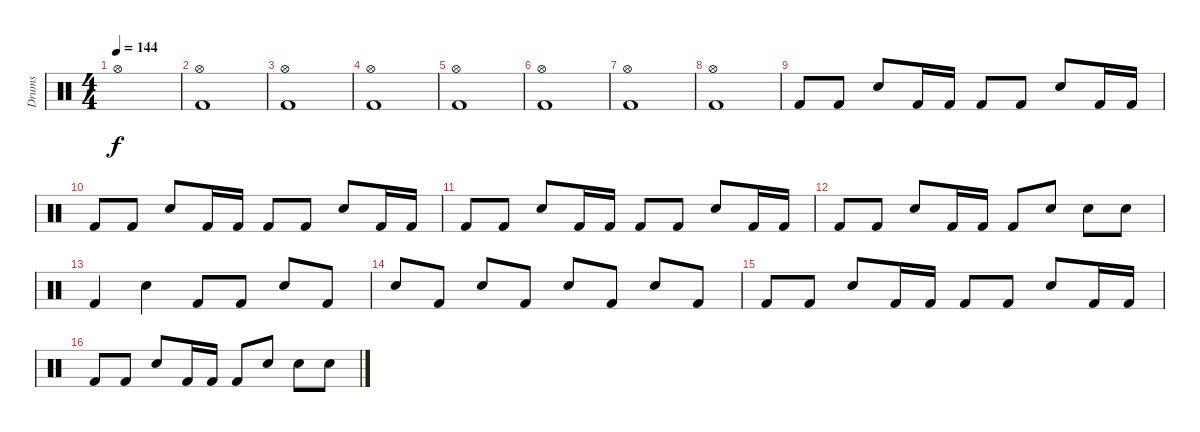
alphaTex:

\track ("Drums" "Drums") {instrument percussion}
\staff {score}
\articulation defaults
\ts (4 4)
\tempo 144
\clef neutral
\ks c "Hi-Hat (open)".1{dy f}
|
("Hi-Hat (open)" "Kick (hit) 2").1 |
("Hi-Hat (open)" "Kick (hit) 2").1 |
("Hi-Hat (open)" "Kick (hit) 2").1 |
("Hi-Hat (open)" "Kick (hit) 2").1 |
("Hi-Hat (open)" "Kick (hit) 2").1 |
("Hi-Hat (open)" "Kick (hit) 2").1 |
("Hi-Hat (open)" "Kick (hit) 2").1 |
"Kick (hit) 2".8 "Kick (hit) 2".8 "Electric Snare (hit)".8 "Kick (hit) 2".16 "Kick (hit) 2".16 "Kick (hit) 2".8 "Kick (hit) 2".8 "Electric Snare (hit)".8 "Kick (hit) 2".16 "Kick (hit) 2".16 |
"Kick (hit) 2".8 "Kick (hit) 2".8 "Electric Snare (hit)".8 "Kick (hit) 2".16 "Kick (hit) 2".16 "Kick (hit) 2".8 "Kick (hit) 2".8 "Electric Snare (hit)".8 "Kick (hit) 2".16 "Kick (hit) 2".16 |
"Kick (hit) 2".8 "Kick (hit) 2".8 "Electric Snare (hit)".8 "Kick (hit) 2".16 "Kick (hit) 2".16 "Kick (hit) 2".8 "Kick (hit) 2".8 "Electric Snare (hit)".8 "Kick (hit) 2".16 "Kick (hit) 2".16 |
"Kick (hit) 2".8 "Kick (hit) 2".8 "Electric Snare (hit)".8 "Kick (hit) 2".16 "Kick (hit) 2".16 "Kick (hit) 2".8 "Electric Snare (hit)".8 "Electric Snare (hit)".8 "Electric Snare (hit)".8 |
"Kick (hit) 2".4 "Electric Snare (hit)".4 "Kick (hit) 2".8 "Kick (hit) 2".8 "Electric Snare (hit)".8 "Kick (hit) 2".8 |
"Electric Snare (hit)".8 "Kick (hit) 2".8 "Electric Snare (hit)".8 "Kick (hit) 2".8 "Electric Snare (hit)".8 "Kick (hit) 2".8 "Electric Snare (hit)".8 "Kick (hit) 2".8 |
"Kick (hit) 2".8 "Kick (hit) 2".8 "Electric Snare (hit)".8 "Kick (hit) 2".16 "Kick (hit) 2".16 "Kick (hit) 2".8 "Kick (hit) 2".8 "Electric Snare (hit)".8 "Kick (hit) 2".16 "Kick (hit) 2".16 |
"Kick (hit) 2".8 "Kick (hit) 2".8 "Electric Snare (hit)".8 "Kick (hit) 2".16 "Kick (hit) 2".16 "Kick (hit) 2".8 "Electric Snare (hit)".8 "Electric Snare (hit)".8 "Electric Snare (hit)".8
